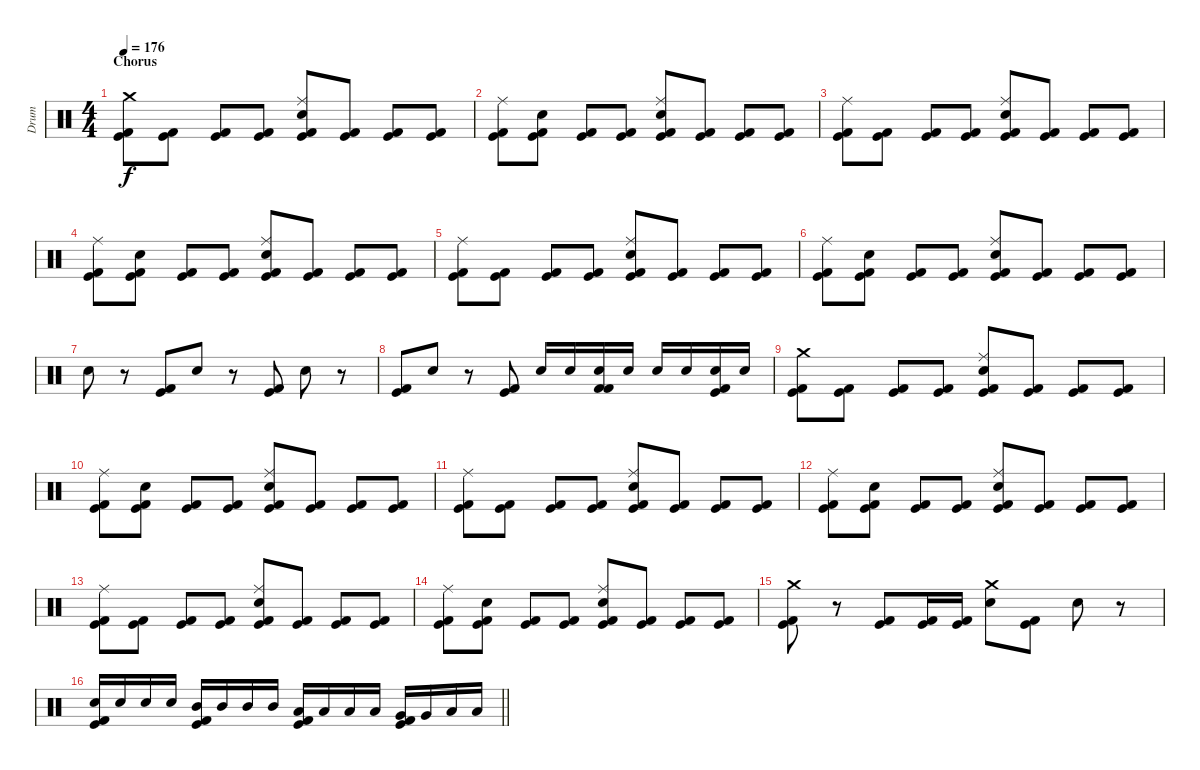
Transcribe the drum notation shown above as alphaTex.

\track ("Drum" "Drum") {instrument percussion}
\staff {score}
\articulation defaults
\ts (4 4)
\section ("" "Chorus")
\tempo 176
\clef neutral
\ks c
("Crash medium (hit)" "Kick (hit)" "Kick (hit) 2").8{dy f} ("Kick (hit)" "Kick (hit) 2").8 ("Kick (hit)" "Kick (hit) 2").8 ("Kick (hit)" "Kick (hit) 2").8 ("Ride (middle)" "Electric Snare (hit)" "Kick (hit)" "Kick (hit) 2").8 ("Kick (hit)" "Kick (hit) 2").8 ("Kick (hit)" "Kick (hit) 2").8 ("Kick (hit)" "Kick (hit) 2").8 |
("Ride (middle)" "Kick (hit)" "Kick (hit) 2").8 ("Electric Snare (hit)" "Kick (hit)" "Kick (hit) 2").8 ("Kick (hit)" "Kick (hit) 2").8 ("Kick (hit)" "Kick (hit) 2").8 ("Ride (middle)" "Electric Snare (hit)" "Kick (hit)" "Kick (hit) 2").8 ("Kick (hit)" "Kick (hit) 2").8 ("Kick (hit)" "Kick (hit) 2").8 ("Kick (hit)" "Kick (hit) 2").8 |
("Ride (middle)" "Kick (hit)" "Kick (hit) 2").8 ("Kick (hit)" "Kick (hit) 2").8 ("Kick (hit)" "Kick (hit) 2").8 ("Kick (hit)" "Kick (hit) 2").8 ("Ride (middle)" "Electric Snare (hit)" "Kick (hit)" "Kick (hit) 2").8 ("Kick (hit)" "Kick (hit) 2").8 ("Kick (hit)" "Kick (hit) 2").8 ("Kick (hit)" "Kick (hit) 2").8 |
("Ride (middle)" "Kick (hit)" "Kick (hit) 2").8 ("Electric Snare (hit)" "Kick (hit)" "Kick (hit) 2").8 ("Kick (hit)" "Kick (hit) 2").8 ("Kick (hit)" "Kick (hit) 2").8 ("Ride (middle)" "Electric Snare (hit)" "Kick (hit)" "Kick (hit) 2").8 ("Kick (hit)" "Kick (hit) 2").8 ("Kick (hit)" "Kick (hit) 2").8 ("Kick (hit)" "Kick (hit) 2").8 |
("Ride (middle)" "Kick (hit)" "Kick (hit) 2").8 ("Kick (hit)" "Kick (hit) 2").8 ("Kick (hit)" "Kick (hit) 2").8 ("Kick (hit)" "Kick (hit) 2").8 ("Ride (middle)" "Electric Snare (hit)" "Kick (hit)" "Kick (hit) 2").8 ("Kick (hit)" "Kick (hit) 2").8 ("Kick (hit)" "Kick (hit) 2").8 ("Kick (hit)" "Kick (hit) 2").8 |
("Ride (middle)" "Kick (hit)" "Kick (hit) 2").8 ("Electric Snare (hit)" "Kick (hit)" "Kick (hit) 2").8 ("Kick (hit)" "Kick (hit) 2").8 ("Kick (hit)" "Kick (hit) 2").8 ("Ride (middle)" "Electric Snare (hit)" "Kick (hit)" "Kick (hit) 2").8 ("Kick (hit)" "Kick (hit) 2").8 ("Kick (hit)" "Kick (hit) 2").8 ("Kick (hit)" "Kick (hit) 2").8 |
"Electric Snare (hit)".8 r.8 ("Kick (hit)" "Kick (hit) 2").8 "Electric Snare (hit)".8 r.8 ("Kick (hit)" "Kick (hit) 2").8 "Electric Snare (hit)".8 r.8 |
("Kick (hit)" "Kick (hit) 2").8 "Electric Snare (hit)".8 r.8 ("Kick (hit)" "Kick (hit) 2").8 "Electric Snare (hit)".16 "Electric Snare (hit)".16 ("Electric Snare (hit)" "Kick (hit) 2" "Kick (hit) 2").16 "Electric Snare (hit)".16 "Electric Snare (hit)".16 "Electric Snare (hit)".16 ("Electric Snare (hit)" "Kick (hit)" "Kick (hit) 2").16 "Electric Snare (hit)".16 |
("Crash medium (hit)" "Kick (hit)" "Kick (hit) 2").8 ("Kick (hit)" "Kick (hit) 2").8 ("Kick (hit)" "Kick (hit) 2").8 ("Kick (hit)" "Kick (hit) 2").8 ("Ride (middle)" "Electric Snare (hit)" "Kick (hit)" "Kick (hit) 2").8 ("Kick (hit)" "Kick (hit) 2").8 ("Kick (hit)" "Kick (hit) 2").8 ("Kick (hit)" "Kick (hit) 2").8 |
("Ride (middle)" "Kick (hit)" "Kick (hit) 2").8 ("Electric Snare (hit)" "Kick (hit)" "Kick (hit) 2").8 ("Kick (hit)" "Kick (hit) 2").8 ("Kick (hit)" "Kick (hit) 2").8 ("Ride (middle)" "Electric Snare (hit)" "Kick (hit)" "Kick (hit) 2").8 ("Kick (hit)" "Kick (hit) 2").8 ("Kick (hit)" "Kick (hit) 2").8 ("Kick (hit)" "Kick (hit) 2").8 |
("Ride (middle)" "Kick (hit)" "Kick (hit) 2").8 ("Kick (hit)" "Kick (hit) 2").8 ("Kick (hit)" "Kick (hit) 2").8 ("Kick (hit)" "Kick (hit) 2").8 ("Ride (middle)" "Electric Snare (hit)" "Kick (hit)" "Kick (hit) 2").8 ("Kick (hit)" "Kick (hit) 2").8 ("Kick (hit)" "Kick (hit) 2").8 ("Kick (hit)" "Kick (hit) 2").8 |
("Ride (middle)" "Kick (hit)" "Kick (hit) 2").8 ("Electric Snare (hit)" "Kick (hit)" "Kick (hit) 2").8 ("Kick (hit)" "Kick (hit) 2").8 ("Kick (hit)" "Kick (hit) 2").8 ("Ride (middle)" "Electric Snare (hit)" "Kick (hit)" "Kick (hit) 2").8 ("Kick (hit)" "Kick (hit) 2").8 ("Kick (hit)" "Kick (hit) 2").8 ("Kick (hit)" "Kick (hit) 2").8 |
("Ride (middle)" "Kick (hit)" "Kick (hit) 2").8 ("Kick (hit)" "Kick (hit) 2").8 ("Kick (hit)" "Kick (hit) 2").8 ("Kick (hit)" "Kick (hit) 2").8 ("Ride (middle)" "Electric Snare (hit)" "Kick (hit)" "Kick (hit) 2").8 ("Kick (hit)" "Kick (hit) 2").8 ("Kick (hit)" "Kick (hit) 2").8 ("Kick (hit)" "Kick (hit) 2").8 |
("Ride (middle)" "Kick (hit)" "Kick (hit) 2").8 ("Electric Snare (hit)" "Kick (hit)" "Kick (hit) 2").8 ("Kick (hit)" "Kick (hit) 2").8 ("Kick (hit)" "Kick (hit) 2").8 ("Ride (middle)" "Electric Snare (hit)" "Kick (hit)" "Kick (hit) 2").8 ("Kick (hit)" "Kick (hit) 2").8 ("Kick (hit)" "Kick (hit) 2").8 ("Kick (hit)" "Kick (hit) 2").8 |
("Crash medium (hit)" "Kick (hit)" "Kick (hit) 2").8 r.8 ("Kick (hit)" "Kick (hit) 2").8 ("Kick (hit)" "Kick (hit) 2").16 ("Kick (hit)" "Kick (hit) 2").16 ("Crash medium (hit)" "Electric Snare (hit)").8 ("Kick (hit)" "Kick (hit) 2").8 "Electric Snare (hit)".8 r.8 |
\barLineRight lightlight
("Electric Snare (hit)" "Kick (hit)" "Kick (hit) 2").16 "Electric Snare (hit)".16 "Electric Snare (hit)".16 "Electric Snare (hit)".16 ("Mid Tom (hit)" "Kick (hit)" "Kick (hit) 2").16 "Mid Tom (hit)".16 "Mid Tom (hit)".16 "Mid Tom (hit)".16 ("Low Tom (hit)" "Kick (hit)" "Kick (hit) 2").16 "Low Tom (hit)".16 "Low Tom (hit)".16 "Low Tom (hit)".16 ("Very Low Tom (hit)" "Kick (hit)" "Kick (hit) 2").16 "Very Low Tom (hit)".16 "Low Floor Tom (hit)".16 "Low Floor Tom (hit)".16
